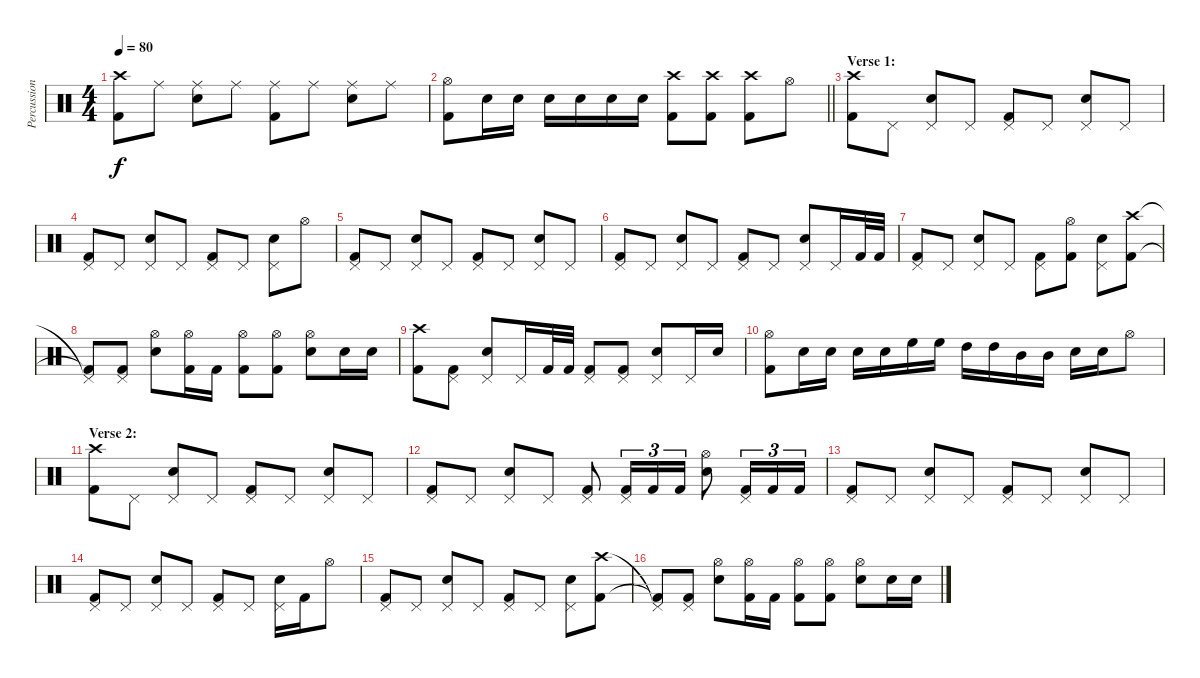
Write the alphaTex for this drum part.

\track ("Percussion" "Percussion") {instrument percussion}
\staff {score}
\articulation defaults
\ts (4 4)
\tempo 80
\clef neutral
\ks c
("Crash high (hit)" "Kick (hit) 2").8{dy f} "Ride (middle)".8 ("Ride (middle)" "Electric Snare (hit)").8 "Ride (middle)".8 ("Ride (middle)" "Kick (hit) 2").8 "Ride (middle)".8 ("Ride (middle)" "Electric Snare (hit)").8 "Ride (middle)".8 |
\barLineRight lightlight
("Hi-Hat (open)" "Kick (hit) 2").8 "Electric Snare (hit)".16 "Electric Snare (hit)".16 "Electric Snare (hit)".16 "Electric Snare (hit)".16 "Electric Snare (hit)".16 "Electric Snare (hit)".16 ("Crash high (hit)" "Kick (hit) 2").8 ("Crash high (hit)" "Kick (hit) 2").8 ("Crash high (hit)" "Kick (hit) 2").8 "Hi-Hat (open)".8 |
\section ("" "Verse 1:")
("Crash high (hit)" "Kick (hit) 2").8 "Pedal Hi-Hat (hit)".8 ("Pedal Hi-Hat (hit)" "Electric Snare (hit)").8 "Pedal Hi-Hat (hit)".8 ("Pedal Hi-Hat (hit)" "Kick (hit) 2").8 "Pedal Hi-Hat (hit)".8 ("Pedal Hi-Hat (hit)" "Electric Snare (hit)").8 "Pedal Hi-Hat (hit)".8 |
("Pedal Hi-Hat (hit)" "Kick (hit) 2").8 "Pedal Hi-Hat (hit)".8 ("Pedal Hi-Hat (hit)" "Electric Snare (hit)").8 "Pedal Hi-Hat (hit)".8 ("Pedal Hi-Hat (hit)" "Kick (hit) 2").8 "Pedal Hi-Hat (hit)".8 ("Pedal Hi-Hat (hit)" "Electric Snare (hit)").8 "Hi-Hat (open)".8 |
("Pedal Hi-Hat (hit)" "Kick (hit) 2").8 "Pedal Hi-Hat (hit)".8 ("Pedal Hi-Hat (hit)" "Electric Snare (hit)").8 "Pedal Hi-Hat (hit)".8 ("Pedal Hi-Hat (hit)" "Kick (hit) 2").8 "Pedal Hi-Hat (hit)".8 ("Pedal Hi-Hat (hit)" "Electric Snare (hit)").8 "Pedal Hi-Hat (hit)".8 |
("Pedal Hi-Hat (hit)" "Kick (hit) 2").8 "Pedal Hi-Hat (hit)".8 ("Pedal Hi-Hat (hit)" "Electric Snare (hit)").8 "Pedal Hi-Hat (hit)".8 ("Pedal Hi-Hat (hit)" "Kick (hit) 2").8 "Pedal Hi-Hat (hit)".8 ("Pedal Hi-Hat (hit)" "Electric Snare (hit)").8 "Pedal Hi-Hat (hit)".16 "Kick (hit) 2".32 "Kick (hit) 2".32 |
("Pedal Hi-Hat (hit)" "Kick (hit) 2").8 "Pedal Hi-Hat (hit)".8 ("Pedal Hi-Hat (hit)" "Electric Snare (hit)").8 "Pedal Hi-Hat (hit)".8 ("Pedal Hi-Hat (hit)" "Kick (hit) 2").8 ("Hi-Hat (open)" "Kick (hit) 2").8 ("Pedal Hi-Hat (hit)" "Electric Snare (hit)").8 ("Crash high (hit)" "Kick (hit) 2").8 |
("Pedal Hi-Hat (hit)"{t} "Kick (hit) 2"{t}).8 ("Pedal Hi-Hat (hit)" "Kick (hit) 2").8 ("Hi-Hat (open)" "Electric Snare (hit)").8 ("Hi-Hat (open)" "Kick (hit) 2").16 "Kick (hit) 2".16 ("Hi-Hat (open)" "Kick (hit) 2").8 ("Hi-Hat (open)" "Kick (hit) 2").8 ("Hi-Hat (open)" "Electric Snare (hit)").8 "Electric Snare (hit)".16 "Electric Snare (hit)".16 |
("Crash high (hit)" "Kick (hit) 2").8 ("Pedal Hi-Hat (hit)" "Kick (hit) 2").8 ("Pedal Hi-Hat (hit)" "Electric Snare (hit)").8 "Pedal Hi-Hat (hit)".16 "Kick (hit) 2".32 "Kick (hit) 2".32 ("Pedal Hi-Hat (hit)" "Kick (hit) 2").8 ("Pedal Hi-Hat (hit)" "Kick (hit) 2").8 ("Pedal Hi-Hat (hit)" "Electric Snare (hit)").8 "Pedal Hi-Hat (hit)".16 "Electric Snare (hit)".16 |
("Hi-Hat (open)" "Kick (hit) 2").8 "Electric Snare (hit)".16 "Electric Snare (hit)".16 "Electric Snare (hit)".16 "Electric Snare (hit)".16 "High Floor Tom (hit)".16 "High Floor Tom (hit)".16 "High Tom (hit)".16 "High Tom (hit)".16 "Mid Tom (hit)".16 "Mid Tom (hit)".16 "Electric Snare (hit)".16 "Electric Snare (hit)".16 "Hi-Hat (open)".8 |
\section ("" "Verse 2:")
("Crash high (hit)" "Kick (hit) 2").8 "Pedal Hi-Hat (hit)".8 ("Pedal Hi-Hat (hit)" "Electric Snare (hit)").8 "Pedal Hi-Hat (hit)".8 ("Pedal Hi-Hat (hit)" "Kick (hit) 2").8 "Pedal Hi-Hat (hit)".8 ("Pedal Hi-Hat (hit)" "Electric Snare (hit)").8 "Pedal Hi-Hat (hit)".8 |
("Pedal Hi-Hat (hit)" "Kick (hit) 2").8 "Pedal Hi-Hat (hit)".8 ("Pedal Hi-Hat (hit)" "Electric Snare (hit)").8 "Pedal Hi-Hat (hit)".8 ("Pedal Hi-Hat (hit)" "Kick (hit) 2").8 ("Pedal Hi-Hat (hit)" "Kick (hit) 2").16{tu (3 2)} "Kick (hit) 2".16{tu (3 2)} "Kick (hit) 2".16{tu (3 2)} ("Hi-Hat (open)" "Electric Snare (hit)").8 ("Pedal Hi-Hat (hit)" "Kick (hit) 2").16{tu (3 2)} "Kick (hit) 2".16{tu (3 2)} "Kick (hit) 2".16{tu (3 2)} |
("Pedal Hi-Hat (hit)" "Kick (hit) 2").8 "Pedal Hi-Hat (hit)".8 ("Pedal Hi-Hat (hit)" "Electric Snare (hit)").8 "Pedal Hi-Hat (hit)".8 ("Pedal Hi-Hat (hit)" "Kick (hit) 2").8 "Pedal Hi-Hat (hit)".8 ("Pedal Hi-Hat (hit)" "Electric Snare (hit)").8 "Pedal Hi-Hat (hit)".8 |
("Pedal Hi-Hat (hit)" "Kick (hit) 2").8 "Pedal Hi-Hat (hit)".8 ("Pedal Hi-Hat (hit)" "Electric Snare (hit)").8 "Pedal Hi-Hat (hit)".8 ("Pedal Hi-Hat (hit)" "Kick (hit) 2").8 "Pedal Hi-Hat (hit)".8 ("Pedal Hi-Hat (hit)" "Electric Snare (hit)").16 "Kick (hit) 2".16 "Hi-Hat (open)".8 |
("Pedal Hi-Hat (hit)" "Kick (hit) 2").8 "Pedal Hi-Hat (hit)".8 ("Pedal Hi-Hat (hit)" "Electric Snare (hit)").8 "Pedal Hi-Hat (hit)".8 ("Pedal Hi-Hat (hit)" "Kick (hit) 2").8 "Pedal Hi-Hat (hit)".8 ("Pedal Hi-Hat (hit)" "Electric Snare (hit)").8 ("Crash high (hit)" "Kick (hit) 2").8 |
("Pedal Hi-Hat (hit)"{t} "Kick (hit) 2"{t}).8 ("Pedal Hi-Hat (hit)" "Kick (hit) 2").8 ("Hi-Hat (open)" "Electric Snare (hit)").8 ("Hi-Hat (open)" "Kick (hit) 2").16 "Kick (hit) 2".16 ("Hi-Hat (open)" "Kick (hit) 2").8 ("Hi-Hat (open)" "Kick (hit) 2").8 ("Hi-Hat (open)" "Electric Snare (hit)").8 "Electric Snare (hit)".16 "Electric Snare (hit)".16
